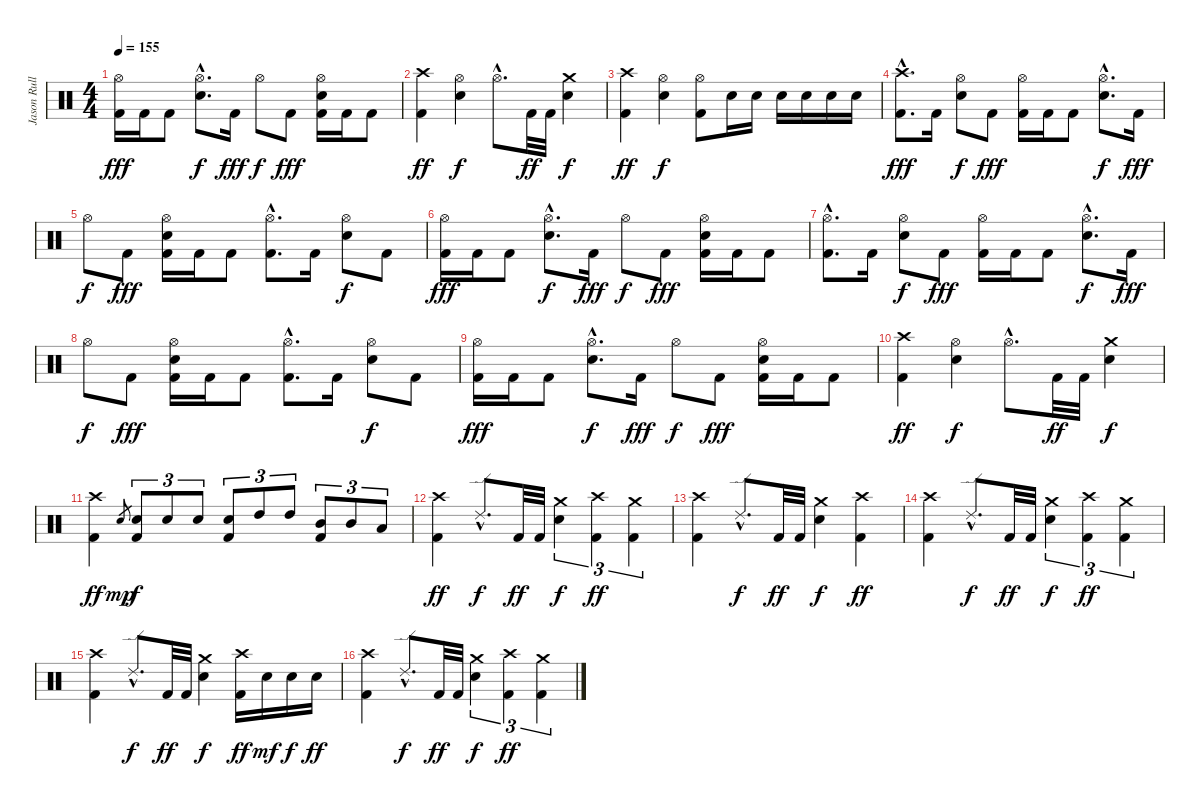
\track ("Jason Rullo" "Jason Rull") {instrument percussion}
\staff {score}
\articulation defaults
\ts (4 4)
\tempo 155
\clef neutral
\ks c
("Hi-Hat (open)" "Kick (hit) 2").16{dy fff} "Kick (hit) 2".16 "Kick (hit) 2".8 ("Hi-Hat (open)"{hac} "Electric Snare (hit)"{hac}).8{d dy f} "Kick (hit) 2".16{dy fff} "Hi-Hat (open)".8{dy f} "Kick (hit) 2".8{dy fff} ("Hi-Hat (open)" "Electric Snare (hit)" "Kick (hit) 2").16 "Kick (hit) 2".16 "Kick (hit) 2".8 |
("Crash high (hit)" "Kick (hit) 2").4{dy ff} ("Hi-Hat (open)" "Electric Snare (hit)").4{dy f} "Hi-Hat (open)"{hac}.8{d} "Kick (hit) 2".32{dy ff} "Kick (hit) 2".32 ("Crash medium (hit)" "Electric Snare (hit)").4{dy f} |
("Crash high (hit)" "Kick (hit) 2").4{dy ff} ("Hi-Hat (open)" "Electric Snare (hit)").4{dy f} ("Hi-Hat (open)" "Kick (hit) 2").8 "Electric Snare (hit)".16 "Electric Snare (hit)".16 "Electric Snare (hit)".16 "Electric Snare (hit)".16 "Electric Snare (hit)".16 "Electric Snare (hit)".16 |
("Crash high (hit)"{hac} "Kick (hit) 2"{hac}).8{d dy fff} "Kick (hit) 2".16 ("Hi-Hat (open)" "Electric Snare (hit)").8{dy f} "Kick (hit) 2".8{dy fff} ("Hi-Hat (open)" "Kick (hit) 2").16 "Kick (hit) 2".16 "Kick (hit) 2".8 ("Hi-Hat (open)"{hac} "Electric Snare (hit)"{hac}).8{d dy f} "Kick (hit) 2".16{dy fff} |
"Hi-Hat (open)".8{dy f} "Kick (hit) 2".8{dy fff} ("Hi-Hat (open)" "Electric Snare (hit)" "Kick (hit) 2").16 "Kick (hit) 2".16 "Kick (hit) 2".8 ("Hi-Hat (open)"{hac} "Kick (hit) 2"{hac}).8{d} "Kick (hit) 2".16 ("Hi-Hat (open)" "Electric Snare (hit)").8{dy f} "Kick (hit) 2".8 |
("Hi-Hat (open)" "Kick (hit) 2").16{dy fff} "Kick (hit) 2".16 "Kick (hit) 2".8 ("Hi-Hat (open)"{hac} "Electric Snare (hit)"{hac}).8{d dy f} "Kick (hit) 2".16{dy fff} "Hi-Hat (open)".8{dy f} "Kick (hit) 2".8{dy fff} ("Hi-Hat (open)" "Electric Snare (hit)" "Kick (hit) 2").16 "Kick (hit) 2".16 "Kick (hit) 2".8 |
("Hi-Hat (open)"{hac} "Kick (hit) 2"{hac}).8{d} "Kick (hit) 2".16 ("Hi-Hat (open)" "Electric Snare (hit)").8{dy f} "Kick (hit) 2".8{dy fff} ("Hi-Hat (open)" "Kick (hit) 2").16 "Kick (hit) 2".16 "Kick (hit) 2".8 ("Hi-Hat (open)"{hac} "Electric Snare (hit)"{hac}).8{d dy f} "Kick (hit) 2".16{dy fff} |
"Hi-Hat (open)".8{dy f} "Kick (hit) 2".8{dy fff} ("Hi-Hat (open)" "Electric Snare (hit)" "Kick (hit) 2").16 "Kick (hit) 2".16 "Kick (hit) 2".8 ("Hi-Hat (open)"{hac} "Kick (hit) 2"{hac}).8{d} "Kick (hit) 2".16 ("Hi-Hat (open)" "Electric Snare (hit)").8{dy f} "Kick (hit) 2".8 |
("Hi-Hat (open)" "Kick (hit) 2").16{dy fff} "Kick (hit) 2".16 "Kick (hit) 2".8 ("Hi-Hat (open)"{hac} "Electric Snare (hit)"{hac}).8{d dy f} "Kick (hit) 2".16{dy fff} "Hi-Hat (open)".8{dy f} "Kick (hit) 2".8{dy fff} ("Hi-Hat (open)" "Electric Snare (hit)" "Kick (hit) 2").16 "Kick (hit) 2".16 "Kick (hit) 2".8 |
("Crash high (hit)" "Kick (hit) 2").4{dy ff} ("Hi-Hat (open)" "Electric Snare (hit)").4{dy f} "Hi-Hat (open)"{hac}.8{d} "Kick (hit) 2".32{dy ff} "Kick (hit) 2".32 ("Crash medium (hit)" "Electric Snare (hit)").4{dy f} |
("Crash high (hit)" "Kick (hit) 2").4{dy ff} "Electric Snare (hit)".8{gr dy mp} ("Electric Snare (hit)" "Kick (hit) 2").8{tu (3 2) dy f} "Electric Snare (hit)".8{tu (3 2)} "Electric Snare (hit)".8{tu (3 2)} ("Electric Snare (hit)" "Kick (hit) 2").8{tu (3 2)} "High Tom (hit)".8{tu (3 2)} "High Tom (hit)".8{tu (3 2)} ("Mid Tom (hit)" "Kick (hit) 2").8{tu (3 2)} "Mid Tom (hit)".8{tu (3 2)} "Low Tom (hit)".8{tu (3 2)} |
("Crash high (hit)" "Kick (hit) 2").4{dy ff} "Ride (edge) 2"{hac}.8{d dy f} "Kick (hit) 2".32{dy ff} "Kick (hit) 2".32 ("Crash medium (hit)" "Electric Snare (hit)").4{tu (3 2) dy f} ("Crash high (hit)" "Kick (hit) 2").4{tu (3 2) dy ff} ("Crash medium (hit)" "Kick (hit) 2").4{tu (3 2)} |
("Crash high (hit)" "Kick (hit) 2").4 "Ride (edge) 2"{hac}.8{d dy f} "Kick (hit) 2".32{dy ff} "Kick (hit) 2".32 ("Crash medium (hit)" "Electric Snare (hit)").4{dy f} ("Crash high (hit)" "Kick (hit) 2").4{dy ff} |
("Crash high (hit)" "Kick (hit) 2").4 "Ride (edge) 2"{hac}.8{d dy f} "Kick (hit) 2".32{dy ff} "Kick (hit) 2".32 ("Crash medium (hit)" "Electric Snare (hit)").4{tu (3 2) dy f} ("Crash high (hit)" "Kick (hit) 2").4{tu (3 2) dy ff} ("Crash medium (hit)" "Kick (hit) 2").4{tu (3 2)} |
("Crash high (hit)" "Kick (hit) 2").4 "Ride (edge) 2"{hac}.8{d dy f} "Kick (hit) 2".32{dy ff} "Kick (hit) 2".32 ("Crash medium (hit)" "Electric Snare (hit)").4{dy f} ("Crash high (hit)" "Kick (hit) 2").16{dy ff} "Electric Snare (hit)".16{dy mf} "Electric Snare (hit)".16{dy f} "Electric Snare (hit)".16{dy ff} |
("Crash high (hit)" "Kick (hit) 2").4 "Ride (edge) 2"{hac}.8{d dy f} "Kick (hit) 2".32{dy ff} "Kick (hit) 2".32 ("Crash medium (hit)" "Electric Snare (hit)").4{tu (3 2) dy f} ("Crash high (hit)" "Kick (hit) 2").4{tu (3 2) dy ff} ("Crash medium (hit)" "Kick (hit) 2").4{tu (3 2)}
